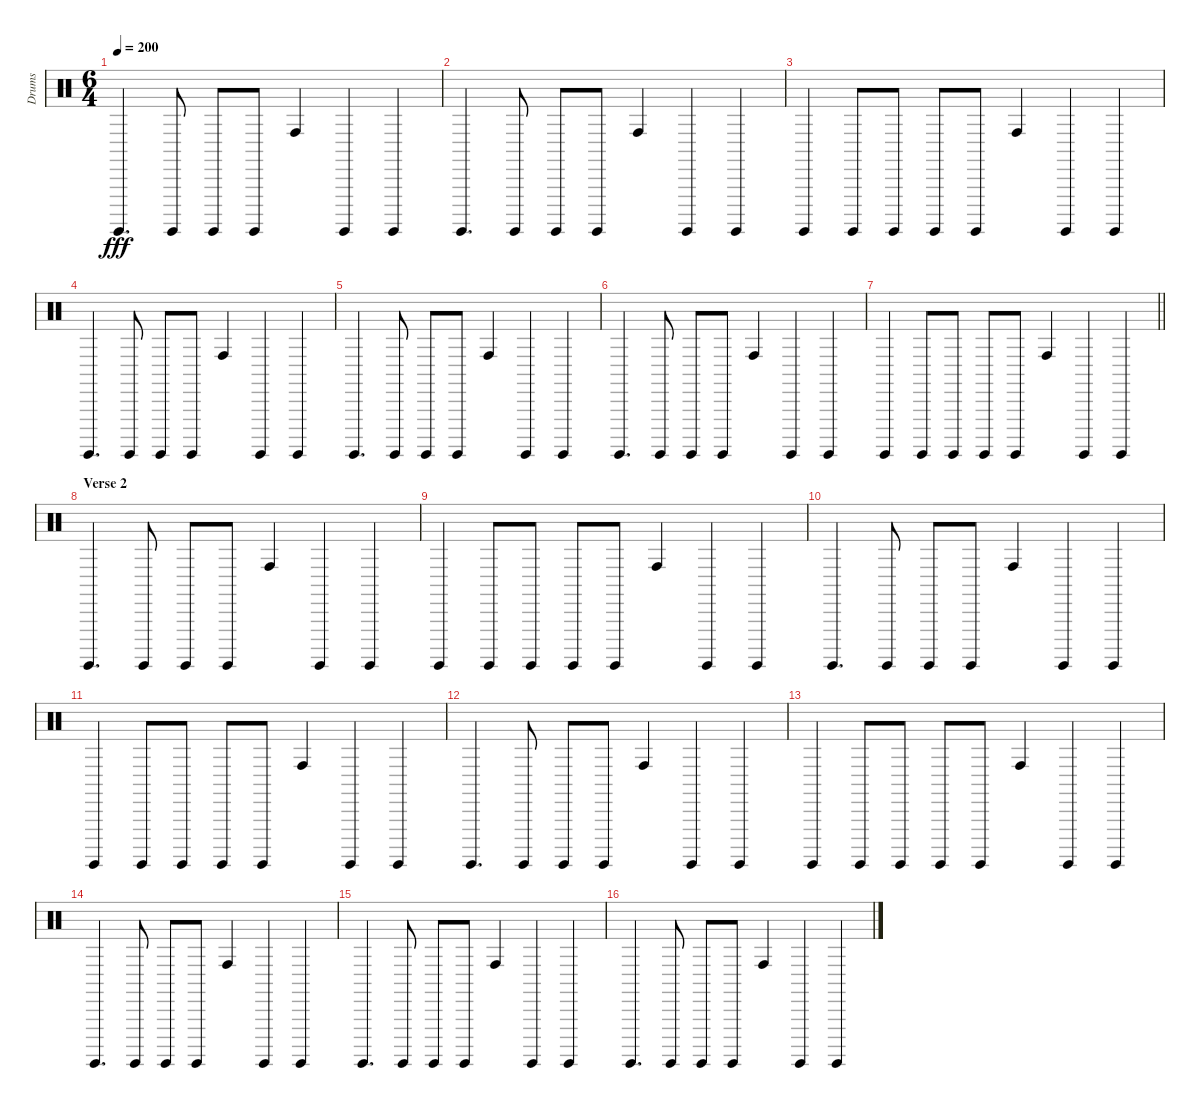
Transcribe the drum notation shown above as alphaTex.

\track ("Drums" "Drums") {instrument percussion}
\staff {score}
\articulation defaults
\ts (6 4)
\tempo 200
\clef neutral
\ks c "Surdo (hit)".4{d dy fff} "Surdo (hit)".8 "Surdo (hit)".8 "Surdo (hit)".8 "Conga high (hit)".4 "Surdo (hit)".4 "Surdo (hit)".4
|
"Surdo (hit)".4{d} "Surdo (hit)".8 "Surdo (hit)".8 "Surdo (hit)".8 "Conga high (hit)".4 "Surdo (hit)".4 "Surdo (hit)".4 |
"Surdo (hit)".4 "Surdo (hit)".8 "Surdo (hit)".8 "Surdo (hit)".8 "Surdo (hit)".8 "Conga high (hit)".4 "Surdo (hit)".4 "Surdo (hit)".4 |
"Surdo (hit)".4{d} "Surdo (hit)".8 "Surdo (hit)".8 "Surdo (hit)".8 "Conga high (hit)".4 "Surdo (hit)".4 "Surdo (hit)".4 |
"Surdo (hit)".4{d} "Surdo (hit)".8 "Surdo (hit)".8 "Surdo (hit)".8 "Conga high (hit)".4 "Surdo (hit)".4 "Surdo (hit)".4 |
"Surdo (hit)".4{d} "Surdo (hit)".8 "Surdo (hit)".8 "Surdo (hit)".8 "Conga high (hit)".4 "Surdo (hit)".4 "Surdo (hit)".4 |
\barLineRight lightlight "Surdo (hit)".4 "Surdo (hit)".8 "Surdo (hit)".8 "Surdo (hit)".8 "Surdo (hit)".8 "Conga high (hit)".4 "Surdo (hit)".4 "Surdo (hit)".4
|
\section ("" "Verse 2")
"Surdo (hit)".4{d} "Surdo (hit)".8 "Surdo (hit)".8 "Surdo (hit)".8 "Conga high (hit)".4 "Surdo (hit)".4 "Surdo (hit)".4 |
"Surdo (hit)".4 "Surdo (hit)".8 "Surdo (hit)".8 "Surdo (hit)".8 "Surdo (hit)".8 "Conga high (hit)".4 "Surdo (hit)".4 "Surdo (hit)".4 |
"Surdo (hit)".4{d} "Surdo (hit)".8 "Surdo (hit)".8 "Surdo (hit)".8 "Conga high (hit)".4 "Surdo (hit)".4 "Surdo (hit)".4 |
"Surdo (hit)".4 "Surdo (hit)".8 "Surdo (hit)".8 "Surdo (hit)".8 "Surdo (hit)".8 "Conga high (hit)".4 "Surdo (hit)".4 "Surdo (hit)".4 |
"Surdo (hit)".4{d} "Surdo (hit)".8 "Surdo (hit)".8 "Surdo (hit)".8 "Conga high (hit)".4 "Surdo (hit)".4 "Surdo (hit)".4 |
"Surdo (hit)".4 "Surdo (hit)".8 "Surdo (hit)".8 "Surdo (hit)".8 "Surdo (hit)".8 "Conga high (hit)".4 "Surdo (hit)".4 "Surdo (hit)".4 |
"Surdo (hit)".4{d} "Surdo (hit)".8 "Surdo (hit)".8 "Surdo (hit)".8 "Conga high (hit)".4 "Surdo (hit)".4 "Surdo (hit)".4 |
"Surdo (hit)".4{d} "Surdo (hit)".8 "Surdo (hit)".8 "Surdo (hit)".8 "Conga high (hit)".4 "Surdo (hit)".4 "Surdo (hit)".4 |
"Surdo (hit)".4{d} "Surdo (hit)".8 "Surdo (hit)".8 "Surdo (hit)".8 "Conga high (hit)".4 "Surdo (hit)".4 "Surdo (hit)".4
